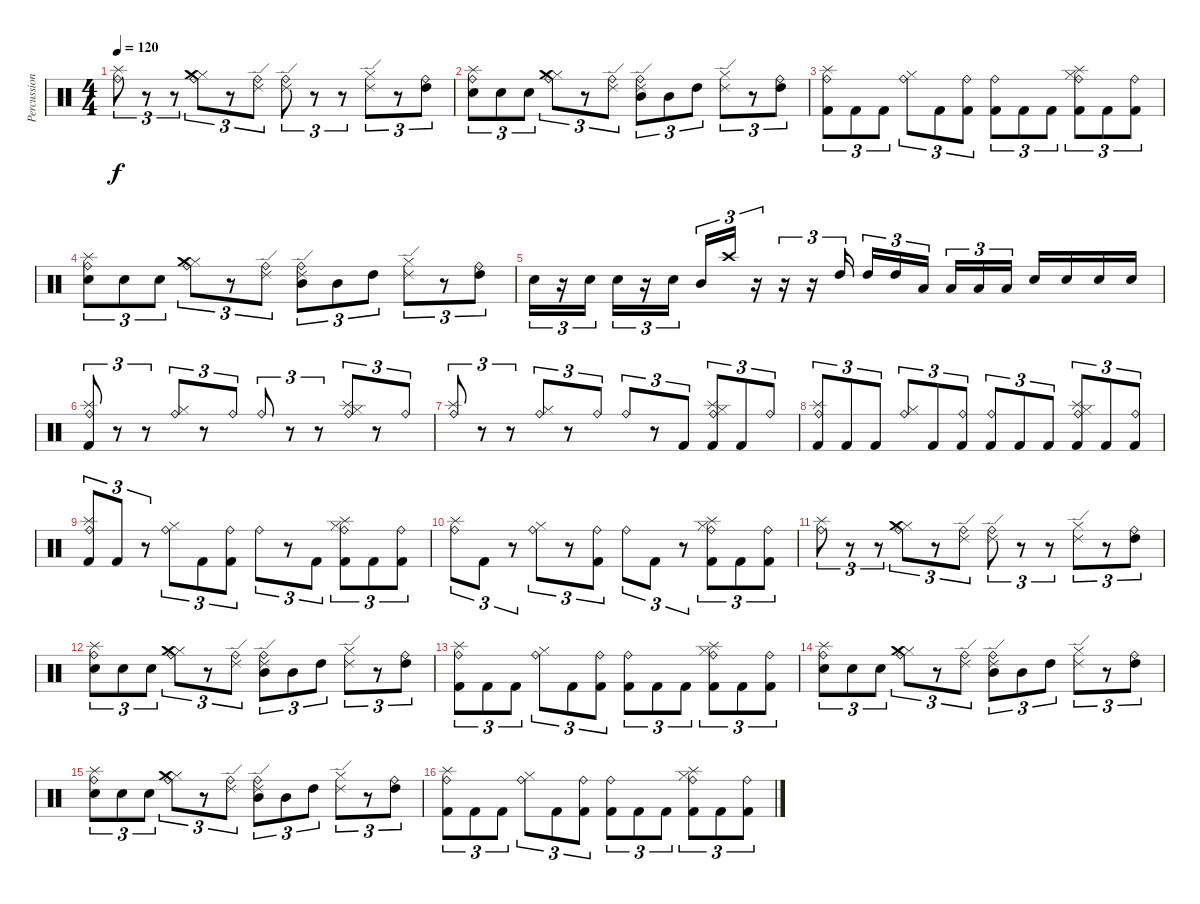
\track ("Percussion" "Percussion") {instrument percussion}
\staff {score}
\articulation defaults
\ts (4 4)
\tempo 120
\clef neutral
\ks c
("Ride (bell)" "Splash (hit)").8{tu (3 2) dy f} r.8{tu (3 2)} r.8{tu (3 2)} ("Hi-Hat (closed)" "Ride (bell)" "Crash medium (hit)").8{tu (3 2)} r.8{tu (3 2)} ("Ride (bell)" "Ride (edge) 2").8{tu (3 2)} ("Ride (bell)" "Ride (edge) 2").8{tu (3 2)} r.8{tu (3 2)} r.8{tu (3 2)} ("Hi-Hat (closed)" "Ride (edge) 2").8{tu (3 2)} r.8{tu (3 2)} ("High Tom (hit)" "Ride (bell)").8{tu (3 2)} |
("Snare (hit) 2" "Ride (bell)" "Splash (hit)").8{tu (3 2)} "Snare (hit) 2".8{tu (3 2)} "Snare (hit) 2".8{tu (3 2)} ("Hi-Hat (closed)" "Ride (bell)" "Crash medium (hit)").8{tu (3 2)} r.8{tu (3 2)} ("Ride (bell)" "Ride (edge) 2").8{tu (3 2)} ("Mid Tom (hit)" "Ride (bell)" "Ride (edge) 2").8{tu (3 2)} "Mid Tom (hit)".8{tu (3 2)} "High Tom (hit)".8{tu (3 2)} ("Hi-Hat (closed)" "Ride (edge) 2").8{tu (3 2)} r.8{tu (3 2)} ("High Tom (hit)" "Ride (bell)").8{tu (3 2)} |
("Kick (hit) 2" "Ride (bell)" "Splash (hit)").8{tu (3 2)} "Kick (hit) 2".8{tu (3 2)} "Kick (hit) 2".8{tu (3 2)} ("Hi-Hat (closed)" "Ride (bell)").8{tu (3 2)} "Kick (hit) 2".8{tu (3 2)} ("Kick (hit) 2" "Ride (bell)").8{tu (3 2)} ("Kick (hit) 2" "Ride (bell)").8{tu (3 2)} "Kick (hit) 2".8{tu (3 2)} "Kick (hit) 2".8{tu (3 2)} ("Hi-Hat (closed)" "Ride (bell)" "Kick (hit) 2" "Splash (hit)").8{tu (3 2)} "Kick (hit) 2".8{tu (3 2)} ("Ride (bell)" "Kick (hit) 2").8{tu (3 2)} |
("Snare (hit) 2" "Ride (bell)" "Splash (hit)").8{tu (3 2)} "Snare (hit) 2".8{tu (3 2)} "Snare (hit) 2".8{tu (3 2)} ("Hi-Hat (closed)" "Ride (bell)" "Crash medium (hit)").8{tu (3 2)} r.8{tu (3 2)} ("Ride (bell)" "Ride (edge) 2").8{tu (3 2)} ("Mid Tom (hit)" "Ride (bell)" "Ride (edge) 2").8{tu (3 2)} "Mid Tom (hit)".8{tu (3 2)} "High Tom (hit)".8{tu (3 2)} ("Hi-Hat (closed)" "Ride (edge) 2").8{tu (3 2)} r.8{tu (3 2)} ("High Tom (hit)" "Ride (bell)").8{tu (3 2)} |
"Snare (hit) 2".16{tu (3 2)} r.16{tu (3 2)} "Snare (hit) 2".16{tu (3 2)} "Snare (hit) 2".16{tu (3 2)} r.16{tu (3 2)} "Snare (hit) 2".16{tu (3 2)} "Mid Tom (hit)".16{tu (3 2) beam Up} "Crash high (hit)".16{tu (3 2) beam Up} r.16{tu (3 2) beam Up} r.16{tu (3 2) beam Up} r.16{tu (3 2) beam Up} "High Tom (hit)".16{tu (3 2) beam Up} "High Tom (hit)".16{tu (3 2) beam Up} "High Tom (hit)".16{tu (3 2) beam Up} "Low Tom (hit)".16{tu (3 2) beam Up beam splitsecondary} "Low Tom (hit)".16{tu (3 2) beam Up} "Low Tom (hit)".16{tu (3 2) beam Up} "Low Tom (hit)".16{tu (3 2) beam Up} "Snare (hit) 2".16{beam Up} "Snare (hit) 2".16{beam Up} "Snare (hit) 2".16{beam Up} "Snare (hit) 2".16{beam Up} |
("Kick (hit) 2" "Ride (bell)" "Splash (hit)").8{tu (3 2) beam Up} r.8{tu (3 2) beam Up} r.8{tu (3 2) beam Up} ("Hi-Hat (closed)" "Ride (bell)").8{tu (3 2) beam Up} r.8{tu (3 2) beam Up} "Ride (bell)".8{tu (3 2) beam Up} "Ride (bell)".8{tu (3 2) beam Up} r.8{tu (3 2) beam Up} r.8{tu (3 2) beam Up} ("Hi-Hat (closed)" "Ride (bell)" "Splash (hit)").8{tu (3 2) beam Up} r.8{tu (3 2) beam Up} "Ride (bell)".8{tu (3 2) beam Up} |
("Ride (bell)" "Splash (hit)").8{tu (3 2) beam Up} r.8{tu (3 2) beam Up} r.8{tu (3 2) beam Up} ("Hi-Hat (closed)" "Ride (bell)").8{tu (3 2) beam Up} r.8{tu (3 2) beam Up} "Ride (bell)".8{tu (3 2) beam Up} "Ride (bell)".8{tu (3 2) beam Up} r.8{tu (3 2) beam Up} "Kick (hit) 2".8{tu (3 2) beam Up} ("Hi-Hat (closed)" "Kick (hit) 2" "Ride (bell)" "Splash (hit)").8{tu (3 2) beam Up} "Kick (hit) 2".8{tu (3 2) beam Up} "Ride (bell)".8{tu (3 2) beam Up} |
("Kick (hit) 2" "Ride (bell)" "Splash (hit)").8{tu (3 2) beam Up} "Kick (hit) 2".8{tu (3 2) beam Up} "Kick (hit) 2".8{tu (3 2) beam Up} ("Hi-Hat (closed)" "Ride (bell)").8{tu (3 2) beam Up} "Kick (hit) 2".8{tu (3 2) beam Up} ("Kick (hit) 2" "Ride (bell)").8{tu (3 2) beam Up} ("Kick (hit) 2" "Ride (bell)").8{tu (3 2) beam Up} "Kick (hit) 2".8{tu (3 2) beam Up} "Kick (hit) 2".8{tu (3 2) beam Up} ("Hi-Hat (closed)" "Ride (bell)" "Kick (hit) 2" "Splash (hit)").8{tu (3 2) beam Up} "Kick (hit) 2".8{tu (3 2) beam Up} ("Ride (bell)" "Kick (hit) 2").8{tu (3 2) beam Up} |
("Kick (hit) 2" "Ride (bell)" "Splash (hit)").8{tu (3 2) beam Up} "Kick (hit) 2".8{tu (3 2) beam Up} r.8{tu (3 2) beam Up} ("Hi-Hat (closed)" "Ride (bell)").8{tu (3 2)} "Kick (hit) 2".8{tu (3 2)} ("Kick (hit) 2" "Ride (bell)").8{tu (3 2)} "Ride (bell)".8{tu (3 2)} r.8{tu (3 2)} "Kick (hit) 2".8{tu (3 2)} ("Hi-Hat (closed)" "Ride (bell)" "Kick (hit) 2" "Splash (hit)").8{tu (3 2)} "Kick (hit) 2".8{tu (3 2)} ("Ride (bell)" "Kick (hit) 2").8{tu (3 2)} |
("Ride (bell)" "Splash (hit)").8{tu (3 2)} "Kick (hit) 2".8{tu (3 2)} r.8{tu (3 2)} ("Hi-Hat (closed)" "Ride (bell)").8{tu (3 2)} r.8{tu (3 2)} ("Kick (hit) 2" "Ride (bell)").8{tu (3 2)} "Ride (bell)".8{tu (3 2)} "Kick (hit) 2".8{tu (3 2)} r.8{tu (3 2)} ("Hi-Hat (closed)" "Ride (bell)" "Kick (hit) 2" "Splash (hit)").8{tu (3 2)} "Kick (hit) 2".8{tu (3 2)} ("Ride (bell)" "Kick (hit) 2").8{tu (3 2)} |
("Ride (bell)" "Splash (hit)").8{tu (3 2)} r.8{tu (3 2)} r.8{tu (3 2)} ("Hi-Hat (closed)" "Ride (bell)" "Crash medium (hit)").8{tu (3 2)} r.8{tu (3 2)} ("Ride (bell)" "Ride (edge) 2").8{tu (3 2)} ("Ride (bell)" "Ride (edge) 2").8{tu (3 2)} r.8{tu (3 2)} r.8{tu (3 2)} ("Hi-Hat (closed)" "Ride (edge) 2").8{tu (3 2)} r.8{tu (3 2)} ("High Tom (hit)" "Ride (bell)").8{tu (3 2)} |
("Snare (hit) 2" "Ride (bell)" "Splash (hit)").8{tu (3 2)} "Snare (hit) 2".8{tu (3 2)} "Snare (hit) 2".8{tu (3 2)} ("Hi-Hat (closed)" "Ride (bell)" "Crash medium (hit)").8{tu (3 2)} r.8{tu (3 2)} ("Ride (bell)" "Ride (edge) 2").8{tu (3 2)} ("Mid Tom (hit)" "Ride (bell)" "Ride (edge) 2").8{tu (3 2)} "Mid Tom (hit)".8{tu (3 2)} "High Tom (hit)".8{tu (3 2)} ("Hi-Hat (closed)" "Ride (edge) 2").8{tu (3 2)} r.8{tu (3 2)} ("High Tom (hit)" "Ride (bell)").8{tu (3 2)} |
("Kick (hit) 2" "Ride (bell)" "Splash (hit)").8{tu (3 2)} "Kick (hit) 2".8{tu (3 2)} "Kick (hit) 2".8{tu (3 2)} ("Hi-Hat (closed)" "Ride (bell)").8{tu (3 2)} "Kick (hit) 2".8{tu (3 2)} ("Kick (hit) 2" "Ride (bell)").8{tu (3 2)} ("Kick (hit) 2" "Ride (bell)").8{tu (3 2)} "Kick (hit) 2".8{tu (3 2)} "Kick (hit) 2".8{tu (3 2)} ("Hi-Hat (closed)" "Ride (bell)" "Kick (hit) 2" "Splash (hit)").8{tu (3 2)} "Kick (hit) 2".8{tu (3 2)} ("Ride (bell)" "Kick (hit) 2").8{tu (3 2)} |
("Snare (hit) 2" "Ride (bell)" "Splash (hit)").8{tu (3 2)} "Snare (hit) 2".8{tu (3 2)} "Snare (hit) 2".8{tu (3 2)} ("Hi-Hat (closed)" "Ride (bell)" "Crash medium (hit)").8{tu (3 2)} r.8{tu (3 2)} ("Ride (bell)" "Ride (edge) 2").8{tu (3 2)} ("Mid Tom (hit)" "Ride (bell)" "Ride (edge) 2").8{tu (3 2)} "Mid Tom (hit)".8{tu (3 2)} "High Tom (hit)".8{tu (3 2)} ("Hi-Hat (closed)" "Ride (edge) 2").8{tu (3 2)} r.8{tu (3 2)} ("High Tom (hit)" "Ride (bell)").8{tu (3 2)} |
("Snare (hit) 2" "Ride (bell)" "Splash (hit)").8{tu (3 2)} "Snare (hit) 2".8{tu (3 2)} "Snare (hit) 2".8{tu (3 2)} ("Hi-Hat (closed)" "Ride (bell)" "Crash medium (hit)").8{tu (3 2)} r.8{tu (3 2)} ("Ride (bell)" "Ride (edge) 2").8{tu (3 2)} ("Mid Tom (hit)" "Ride (bell)" "Ride (edge) 2").8{tu (3 2)} "Mid Tom (hit)".8{tu (3 2)} "High Tom (hit)".8{tu (3 2)} ("Hi-Hat (closed)" "Ride (edge) 2").8{tu (3 2)} r.8{tu (3 2)} ("High Tom (hit)" "Ride (bell)").8{tu (3 2)} |
("Kick (hit) 2" "Ride (bell)" "Splash (hit)").8{tu (3 2)} "Kick (hit) 2".8{tu (3 2)} "Kick (hit) 2".8{tu (3 2)} ("Hi-Hat (closed)" "Ride (bell)").8{tu (3 2)} "Kick (hit) 2".8{tu (3 2)} ("Kick (hit) 2" "Ride (bell)").8{tu (3 2)} ("Kick (hit) 2" "Ride (bell)").8{tu (3 2)} "Kick (hit) 2".8{tu (3 2)} "Kick (hit) 2".8{tu (3 2)} ("Hi-Hat (closed)" "Ride (bell)" "Kick (hit) 2" "Splash (hit)").8{tu (3 2)} "Kick (hit) 2".8{tu (3 2)} ("Ride (bell)" "Kick (hit) 2").8{tu (3 2)}
